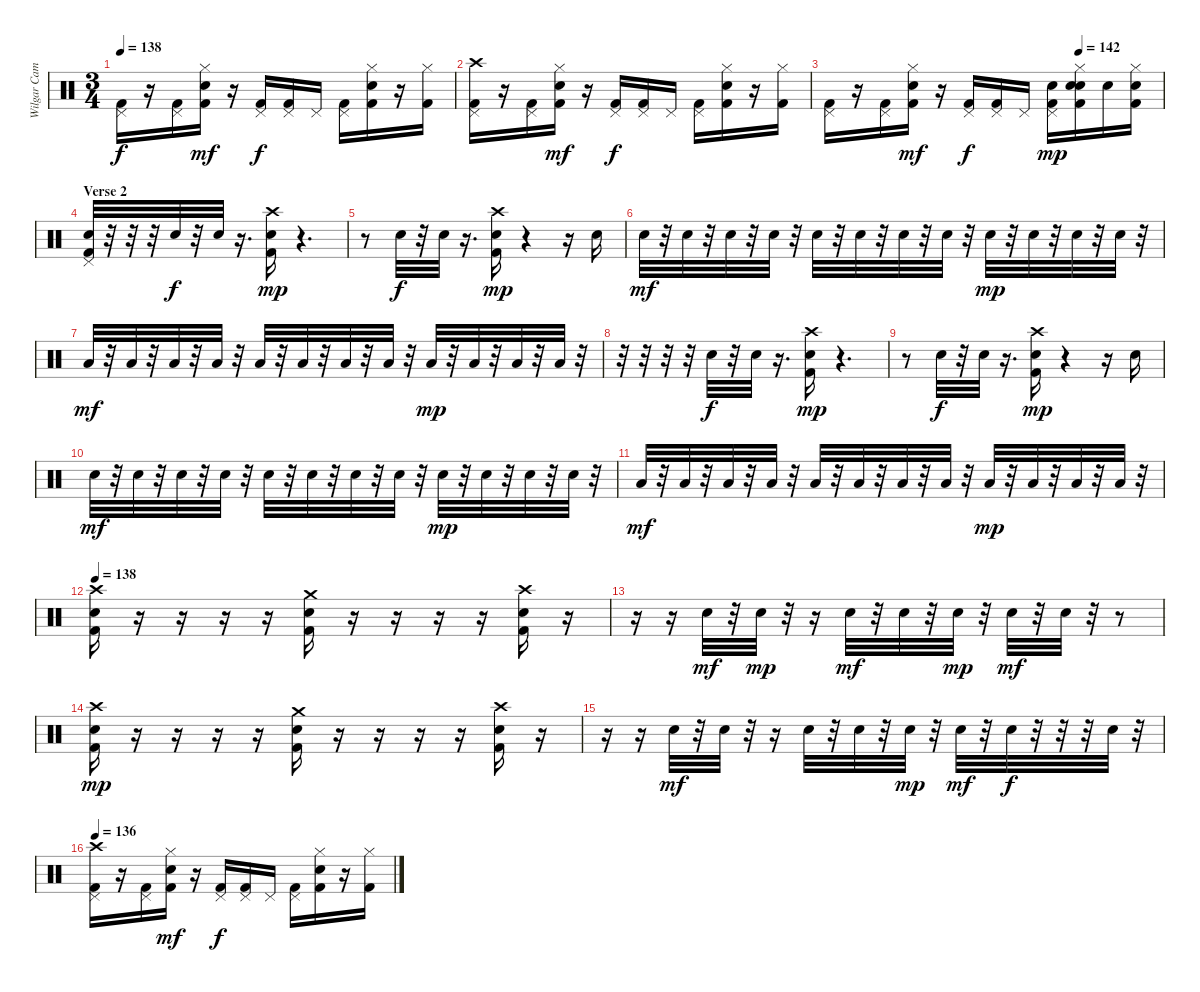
\track ("Wilgar Campbell" "Wilgar Cam") {instrument percussion}
\staff {score}
\articulation defaults
\ts (3 4)
\tempo 138
\clef neutral
\ks c
("Pedal Hi-Hat (hit)" "Kick (hit) 2").16{dy f} r.16 ("Pedal Hi-Hat (hit)" "Kick (hit) 2").16 ("Snare (hit) 2" "Hi-Hat (closed)" "Kick (hit) 2").16{dy mf} r.16 ("Pedal Hi-Hat (hit)" "Kick (hit) 2").16{dy f} ("Pedal Hi-Hat (hit)" "Kick (hit) 2").16 "Pedal Hi-Hat (hit)".16 ("Pedal Hi-Hat (hit)" "Kick (hit) 2").16 ("Snare (hit) 2" "Hi-Hat (closed)" "Kick (hit) 2").16 r.16 ("Hi-Hat (closed)" "Kick (hit) 2").16 |
("Crash high (hit)" "Pedal Hi-Hat (hit)" "Kick (hit) 2").16 r.16 ("Pedal Hi-Hat (hit)" "Kick (hit) 2").16 ("Snare (hit) 2" "Hi-Hat (closed)" "Kick (hit) 2").16{dy mf} r.16 ("Pedal Hi-Hat (hit)" "Kick (hit) 2").16{dy f} ("Pedal Hi-Hat (hit)" "Kick (hit) 2").16 "Pedal Hi-Hat (hit)".16 ("Pedal Hi-Hat (hit)" "Kick (hit) 2").16 ("Snare (hit) 2" "Hi-Hat (closed)" "Kick (hit) 2").16 r.16 ("Hi-Hat (closed)" "Kick (hit) 2").16 |
\tempo (142 0.75)
("Pedal Hi-Hat (hit)" "Kick (hit) 2").16 r.16 ("Pedal Hi-Hat (hit)" "Kick (hit) 2").16 ("Snare (hit) 2" "Hi-Hat (closed)" "Kick (hit) 2").16{dy mf} r.16 ("Pedal Hi-Hat (hit)" "Kick (hit) 2").16{dy f} ("Pedal Hi-Hat (hit)" "Kick (hit) 2").16 "Pedal Hi-Hat (hit)".16 ("Pedal Hi-Hat (hit)" "Snare (hit) 2" "Kick (hit) 2").16{dy mp} ("Snare (hit) 2" "Hi-Hat (closed)" "Snare (hit) 2" "Kick (hit) 2").16 "Snare (hit) 2".16 ("Hi-Hat (closed)" "Snare (hit) 2" "Kick (hit) 2").16 |
\section ("" "Verse 2")
("Pedal Hi-Hat (hit)" "Snare (hit) 2" "Kick (hit) 2").32 r.32 r.32 r.32 "Snare (hit) 2".32{dy f} r.32 "Snare (hit) 2".32 r.16{d} ("Crash high (hit)" "Snare (hit) 2" "Kick (hit) 2").16{dy mp} r.4{d} |
r.8 "Snare (hit) 2".32{dy f} r.32 "Snare (hit) 2".32 r.16{d} ("Crash high (hit)" "Snare (hit) 2" "Kick (hit) 2").16{dy mp} r.4 r.16 "Snare (hit) 2".16 |
"Snare (hit) 2".32{dy mf} r.32 "Snare (hit) 2".32 r.32 "Snare (hit) 2".32 r.32 "Snare (hit) 2".32 r.32 "Snare (hit) 2".32 r.32 "Snare (hit) 2".32 r.32 "Snare (hit) 2".32 r.32 "Snare (hit) 2".32 r.32 "Snare (hit) 2".32{dy mp} r.32 "Snare (hit) 2".32 r.32 "Snare (hit) 2".32 r.32 "Snare (hit) 2".32 r.32 |
"Low Tom (hit)".32{dy mf} r.32 "Low Tom (hit)".32 r.32 "Low Tom (hit)".32 r.32 "Low Tom (hit)".32 r.32 "Low Tom (hit)".32 r.32 "Low Tom (hit)".32 r.32 "Low Tom (hit)".32 r.32 "Low Tom (hit)".32 r.32 "Low Tom (hit)".32{dy mp} r.32 "Low Tom (hit)".32 r.32 "Low Tom (hit)".32 r.32 "Low Tom (hit)".32 r.32 |
r.32 r.32 r.32 r.32 "Snare (hit) 2".32{dy f} r.32 "Snare (hit) 2".32 r.16{d} ("Crash high (hit)" "Snare (hit) 2" "Kick (hit) 2").16{dy mp} r.4{d} |
r.8 "Snare (hit) 2".32{dy f} r.32 "Snare (hit) 2".32 r.16{d} ("Crash high (hit)" "Snare (hit) 2" "Kick (hit) 2").16{dy mp} r.4 r.16 "Snare (hit) 2".16 |
"Snare (hit) 2".32{dy mf} r.32 "Snare (hit) 2".32 r.32 "Snare (hit) 2".32 r.32 "Snare (hit) 2".32 r.32 "Snare (hit) 2".32 r.32 "Snare (hit) 2".32 r.32 "Snare (hit) 2".32 r.32 "Snare (hit) 2".32 r.32 "Snare (hit) 2".32{dy mp} r.32 "Snare (hit) 2".32 r.32 "Snare (hit) 2".32 r.32 "Snare (hit) 2".32 r.32 |
"Low Tom (hit)".32{dy mf} r.32 "Low Tom (hit)".32 r.32 "Low Tom (hit)".32 r.32 "Low Tom (hit)".32 r.32 "Low Tom (hit)".32 r.32 "Low Tom (hit)".32 r.32 "Low Tom (hit)".32 r.32 "Low Tom (hit)".32 r.32 "Low Tom (hit)".32{dy mp} r.32 "Low Tom (hit)".32 r.32 "Low Tom (hit)".32 r.32 "Low Tom (hit)".32 r.32 |
\tempo 138
("Crash high (hit)" "Snare (hit) 2" "Kick (hit) 2").16 r.16 r.16 r.16 r.16 ("Crash medium (hit)" "Snare (hit) 2" "Kick (hit) 2").16 r.16 r.16 r.16 r.16 ("Crash high (hit)" "Snare (hit) 2" "Kick (hit) 2").16 r.16 |
r.16 r.16 "Snare (hit) 2".32{dy mf} r.32 "Electric Snare (hit)".32{dy mp} r.32 r.16 "Snare (hit) 2".32{dy mf} r.32 "Snare (hit) 2".32 r.32 "Snare (hit) 2".32{dy mp} r.32 "Snare (hit) 2".32{dy mf} r.32 "Electric Snare (hit)".32 r.32 r.8 |
("Crash high (hit)" "Snare (hit) 2" "Kick (hit) 2").16{dy mp} r.16 r.16 r.16 r.16 ("Crash medium (hit)" "Snare (hit) 2" "Kick (hit) 2").16 r.16 r.16 r.16 r.16 ("Crash high (hit)" "Snare (hit) 2" "Kick (hit) 2").16 r.16 |
r.16 r.16 "Snare (hit) 2".32{dy mf} r.32 "Snare (hit) 2".32 r.32 r.16 "Snare (hit) 2".32 r.32 "Snare (hit) 2".32 r.32 "Snare (hit) 2".32{dy mp} r.32 "Snare (hit) 2".32{dy mf} r.32 "Snare (hit) 2".32{dy f} r.32 r.32 r.32 "Snare (hit) 2".32 r.32 |
\tempo 136
("Crash high (hit)" "Pedal Hi-Hat (hit)" "Kick (hit) 2").16 r.16 ("Pedal Hi-Hat (hit)" "Kick (hit) 2").16 ("Snare (hit) 2" "Hi-Hat (closed)" "Kick (hit) 2").16{dy mf} r.16 ("Pedal Hi-Hat (hit)" "Kick (hit) 2").16{dy f} ("Pedal Hi-Hat (hit)" "Kick (hit) 2").16 "Pedal Hi-Hat (hit)".16 ("Pedal Hi-Hat (hit)" "Kick (hit) 2").16 ("Snare (hit) 2" "Hi-Hat (closed)" "Kick (hit) 2").16 r.16 ("Hi-Hat (closed)" "Kick (hit) 2").16
